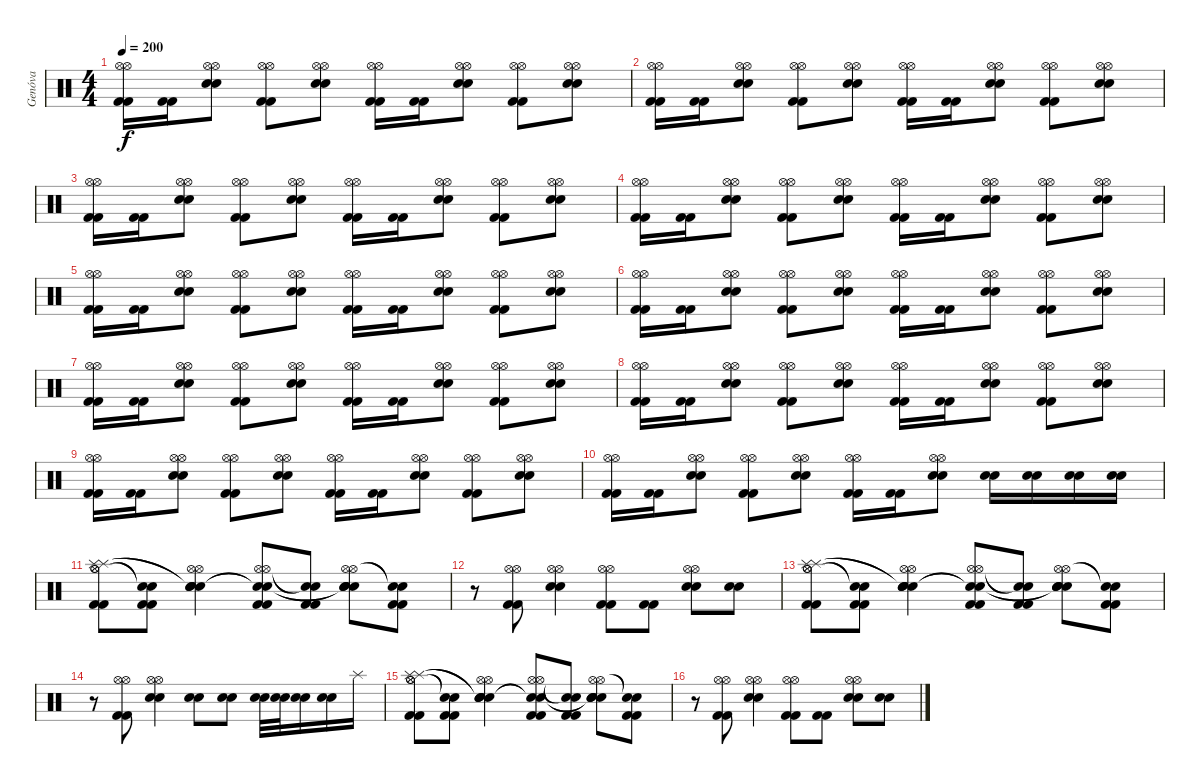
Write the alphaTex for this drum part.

\track ("Genóva" "Genóva") {instrument percussion}
\staff {score}
\articulation defaults
\ts (4 4)
\tempo 200
\clef neutral
\ks c
("Kick (hit) 2" "Kick (hit) 2" "Hi-Hat (open)" "Hi-Hat (open)").16{dy f} ("Kick (hit) 2" "Kick (hit) 2").16 ("Snare (hit) 2" "Snare (hit) 2" "Hi-Hat (open)" "Hi-Hat (open)").8 ("Kick (hit) 2" "Kick (hit) 2" "Hi-Hat (open)" "Hi-Hat (open)").8 ("Snare (hit) 2" "Snare (hit) 2" "Hi-Hat (open)" "Hi-Hat (open)").8 ("Kick (hit) 2" "Kick (hit) 2" "Hi-Hat (open)" "Hi-Hat (open)").16 ("Kick (hit) 2" "Kick (hit) 2").16 ("Snare (hit) 2" "Snare (hit) 2" "Hi-Hat (open)" "Hi-Hat (open)").8 ("Kick (hit) 2" "Kick (hit) 2" "Hi-Hat (open)" "Hi-Hat (open)").8 ("Snare (hit) 2" "Snare (hit) 2" "Hi-Hat (open)" "Hi-Hat (open)").8 |
("Kick (hit) 2" "Kick (hit) 2" "Hi-Hat (open)" "Hi-Hat (open)").16 ("Kick (hit) 2" "Kick (hit) 2").16 ("Snare (hit) 2" "Snare (hit) 2" "Hi-Hat (open)" "Hi-Hat (open)").8 ("Kick (hit) 2" "Kick (hit) 2" "Hi-Hat (open)" "Hi-Hat (open)").8 ("Snare (hit) 2" "Snare (hit) 2" "Hi-Hat (open)" "Hi-Hat (open)").8 ("Kick (hit) 2" "Kick (hit) 2" "Hi-Hat (open)" "Hi-Hat (open)").16 ("Kick (hit) 2" "Kick (hit) 2").16 ("Snare (hit) 2" "Snare (hit) 2" "Hi-Hat (open)" "Hi-Hat (open)").8 ("Kick (hit) 2" "Kick (hit) 2" "Hi-Hat (open)" "Hi-Hat (open)").8 ("Snare (hit) 2" "Snare (hit) 2" "Hi-Hat (open)" "Hi-Hat (open)").8 |
("Kick (hit) 2" "Kick (hit) 2" "Hi-Hat (open)" "Hi-Hat (open)").16 ("Kick (hit) 2" "Kick (hit) 2").16 ("Snare (hit) 2" "Snare (hit) 2" "Hi-Hat (open)" "Hi-Hat (open)").8 ("Kick (hit) 2" "Kick (hit) 2" "Hi-Hat (open)" "Hi-Hat (open)").8 ("Snare (hit) 2" "Snare (hit) 2" "Hi-Hat (open)" "Hi-Hat (open)").8 ("Kick (hit) 2" "Kick (hit) 2" "Hi-Hat (open)" "Hi-Hat (open)").16 ("Kick (hit) 2" "Kick (hit) 2").16 ("Snare (hit) 2" "Snare (hit) 2" "Hi-Hat (open)" "Hi-Hat (open)").8 ("Kick (hit) 2" "Kick (hit) 2" "Hi-Hat (open)" "Hi-Hat (open)").8 ("Snare (hit) 2" "Snare (hit) 2" "Hi-Hat (open)" "Hi-Hat (open)").8 |
("Kick (hit) 2" "Kick (hit) 2" "Hi-Hat (open)" "Hi-Hat (open)").16 ("Kick (hit) 2" "Kick (hit) 2").16 ("Snare (hit) 2" "Snare (hit) 2" "Hi-Hat (open)" "Hi-Hat (open)").8 ("Kick (hit) 2" "Kick (hit) 2" "Hi-Hat (open)" "Hi-Hat (open)").8 ("Snare (hit) 2" "Snare (hit) 2" "Hi-Hat (open)" "Hi-Hat (open)").8 ("Kick (hit) 2" "Kick (hit) 2" "Hi-Hat (open)" "Hi-Hat (open)").16 ("Kick (hit) 2" "Kick (hit) 2").16 ("Snare (hit) 2" "Snare (hit) 2" "Hi-Hat (open)" "Hi-Hat (open)").8 ("Kick (hit) 2" "Kick (hit) 2" "Hi-Hat (open)" "Hi-Hat (open)").8 ("Snare (hit) 2" "Snare (hit) 2" "Hi-Hat (open)" "Hi-Hat (open)").8 |
("Kick (hit) 2" "Kick (hit) 2" "Hi-Hat (open)" "Hi-Hat (open)").16 ("Kick (hit) 2" "Kick (hit) 2").16 ("Snare (hit) 2" "Snare (hit) 2" "Hi-Hat (open)" "Hi-Hat (open)").8 ("Kick (hit) 2" "Kick (hit) 2" "Hi-Hat (open)" "Hi-Hat (open)").8 ("Snare (hit) 2" "Snare (hit) 2" "Hi-Hat (open)" "Hi-Hat (open)").8 ("Kick (hit) 2" "Kick (hit) 2" "Hi-Hat (open)" "Hi-Hat (open)").16 ("Kick (hit) 2" "Kick (hit) 2").16 ("Snare (hit) 2" "Snare (hit) 2" "Hi-Hat (open)" "Hi-Hat (open)").8 ("Kick (hit) 2" "Kick (hit) 2" "Hi-Hat (open)" "Hi-Hat (open)").8 ("Snare (hit) 2" "Snare (hit) 2" "Hi-Hat (open)" "Hi-Hat (open)").8 |
("Kick (hit) 2" "Kick (hit) 2" "Hi-Hat (open)" "Hi-Hat (open)").16 ("Kick (hit) 2" "Kick (hit) 2").16 ("Snare (hit) 2" "Snare (hit) 2" "Hi-Hat (open)" "Hi-Hat (open)").8 ("Kick (hit) 2" "Kick (hit) 2" "Hi-Hat (open)" "Hi-Hat (open)").8 ("Snare (hit) 2" "Snare (hit) 2" "Hi-Hat (open)" "Hi-Hat (open)").8 ("Kick (hit) 2" "Kick (hit) 2" "Hi-Hat (open)" "Hi-Hat (open)").16 ("Kick (hit) 2" "Kick (hit) 2").16 ("Snare (hit) 2" "Snare (hit) 2" "Hi-Hat (open)" "Hi-Hat (open)").8 ("Kick (hit) 2" "Kick (hit) 2" "Hi-Hat (open)" "Hi-Hat (open)").8 ("Snare (hit) 2" "Snare (hit) 2" "Hi-Hat (open)" "Hi-Hat (open)").8 |
("Kick (hit) 2" "Kick (hit) 2" "Hi-Hat (open)" "Hi-Hat (open)").16 ("Kick (hit) 2" "Kick (hit) 2").16 ("Snare (hit) 2" "Snare (hit) 2" "Hi-Hat (open)" "Hi-Hat (open)").8 ("Kick (hit) 2" "Kick (hit) 2" "Hi-Hat (open)" "Hi-Hat (open)").8 ("Snare (hit) 2" "Snare (hit) 2" "Hi-Hat (open)" "Hi-Hat (open)").8 ("Kick (hit) 2" "Kick (hit) 2" "Hi-Hat (open)" "Hi-Hat (open)").16 ("Kick (hit) 2" "Kick (hit) 2").16 ("Snare (hit) 2" "Snare (hit) 2" "Hi-Hat (open)" "Hi-Hat (open)").8 ("Kick (hit) 2" "Kick (hit) 2" "Hi-Hat (open)" "Hi-Hat (open)").8 ("Snare (hit) 2" "Snare (hit) 2" "Hi-Hat (open)" "Hi-Hat (open)").8 |
("Kick (hit) 2" "Kick (hit) 2" "Hi-Hat (open)" "Hi-Hat (open)").16 ("Kick (hit) 2" "Kick (hit) 2").16 ("Snare (hit) 2" "Snare (hit) 2" "Hi-Hat (open)" "Hi-Hat (open)").8 ("Kick (hit) 2" "Kick (hit) 2" "Hi-Hat (open)" "Hi-Hat (open)").8 ("Snare (hit) 2" "Snare (hit) 2" "Hi-Hat (open)" "Hi-Hat (open)").8 ("Kick (hit) 2" "Kick (hit) 2" "Hi-Hat (open)" "Hi-Hat (open)").16 ("Kick (hit) 2" "Kick (hit) 2").16 ("Snare (hit) 2" "Snare (hit) 2" "Hi-Hat (open)" "Hi-Hat (open)").8 ("Kick (hit) 2" "Kick (hit) 2" "Hi-Hat (open)" "Hi-Hat (open)").8 ("Snare (hit) 2" "Snare (hit) 2" "Hi-Hat (open)" "Hi-Hat (open)").8 |
("Kick (hit) 2" "Kick (hit) 2" "Hi-Hat (open)" "Hi-Hat (open)").16 ("Kick (hit) 2" "Kick (hit) 2").16 ("Snare (hit) 2" "Snare (hit) 2" "Hi-Hat (open)" "Hi-Hat (open)").8 ("Kick (hit) 2" "Kick (hit) 2" "Hi-Hat (open)" "Hi-Hat (open)").8 ("Snare (hit) 2" "Snare (hit) 2" "Hi-Hat (open)" "Hi-Hat (open)").8 ("Kick (hit) 2" "Kick (hit) 2" "Hi-Hat (open)" "Hi-Hat (open)").16 ("Kick (hit) 2" "Kick (hit) 2").16 ("Snare (hit) 2" "Snare (hit) 2" "Hi-Hat (open)" "Hi-Hat (open)").8 ("Kick (hit) 2" "Kick (hit) 2" "Hi-Hat (open)" "Hi-Hat (open)").8 ("Snare (hit) 2" "Snare (hit) 2" "Hi-Hat (open)" "Hi-Hat (open)").8 |
("Kick (hit) 2" "Kick (hit) 2" "Hi-Hat (open)" "Hi-Hat (open)").16 ("Kick (hit) 2" "Kick (hit) 2").16 ("Snare (hit) 2" "Snare (hit) 2" "Hi-Hat (open)" "Hi-Hat (open)").8 ("Kick (hit) 2" "Kick (hit) 2" "Hi-Hat (open)" "Hi-Hat (open)").8 ("Snare (hit) 2" "Snare (hit) 2" "Hi-Hat (open)" "Hi-Hat (open)").8 ("Kick (hit) 2" "Kick (hit) 2" "Hi-Hat (open)" "Hi-Hat (open)").16 ("Kick (hit) 2" "Kick (hit) 2").16 ("Snare (hit) 2" "Snare (hit) 2" "Hi-Hat (open)" "Hi-Hat (open)").8 ("Snare (hit) 2" "Snare (hit) 2").16 ("Snare (hit) 2" "Snare (hit) 2").16 ("Snare (hit) 2" "Snare (hit) 2").16 ("Snare (hit) 2" "Snare (hit) 2").16 |
("Kick (hit) 2" "Kick (hit) 2" "Hi-Hat (open)" "Hi-Hat (open)" "Splash (hit)" "Splash (hit)").8 ("Kick (hit) 2" "Kick (hit) 2" "Snare (hit)"{t} "Snare (hit)"{t}).8 ("Snare (hit) 2" "Snare (hit) 2" "Hi-Hat (open)" "Hi-Hat (open)" "Snare (hit)"{t} "Snare (hit)"{t}).4 ("Kick (hit) 2" "Kick (hit) 2" "Hi-Hat (open)" "Hi-Hat (open)" "Snare (hit)"{t} "Snare (hit)"{t}).8 ("Kick (hit) 2" "Kick (hit) 2" "Snare (hit)"{t} "Snare (hit)"{t}).8 ("Snare (hit) 2" "Snare (hit) 2" "Hi-Hat (open)" "Hi-Hat (open)" "Snare (hit)"{t} "Snare (hit)"{t}).8 ("Kick (hit) 2" "Kick (hit) 2" "Snare (hit)"{t} "Snare (hit)"{t}).8 |
r.8 ("Kick (hit) 2" "Kick (hit) 2" "Hi-Hat (open)" "Hi-Hat (open)").8 ("Snare (hit) 2" "Snare (hit) 2" "Hi-Hat (open)" "Hi-Hat (open)").4 ("Kick (hit) 2" "Kick (hit) 2" "Hi-Hat (open)" "Hi-Hat (open)").8 ("Kick (hit) 2" "Kick (hit) 2").8 ("Snare (hit) 2" "Snare (hit) 2" "Hi-Hat (open)" "Hi-Hat (open)").8 ("Snare (hit) 2" "Snare (hit) 2").8 |
("Kick (hit) 2" "Kick (hit) 2" "Hi-Hat (open)" "Hi-Hat (open)" "Splash (hit)" "Splash (hit)").8 ("Kick (hit) 2" "Kick (hit) 2" "Snare (hit)"{t} "Snare (hit)"{t}).8 ("Snare (hit) 2" "Snare (hit) 2" "Hi-Hat (open)" "Hi-Hat (open)" "Snare (hit)"{t} "Snare (hit)"{t}).4 ("Kick (hit) 2" "Kick (hit) 2" "Hi-Hat (open)" "Hi-Hat (open)" "Snare (hit)"{t} "Snare (hit)"{t}).8 ("Kick (hit) 2" "Kick (hit) 2" "Snare (hit)"{t} "Snare (hit)"{t}).8 ("Snare (hit) 2" "Snare (hit) 2" "Hi-Hat (open)" "Hi-Hat (open)" "Snare (hit)"{t} "Snare (hit)"{t}).8 ("Kick (hit) 2" "Kick (hit) 2" "Snare (hit)"{t} "Snare (hit)"{t}).8 |
r.8 ("Kick (hit) 2" "Kick (hit) 2" "Hi-Hat (open)" "Hi-Hat (open)").8 ("Snare (hit) 2" "Snare (hit) 2" "Hi-Hat (open)" "Hi-Hat (open)").4 ("Snare (hit) 2" "Snare (hit) 2").8 ("Snare (hit) 2" "Snare (hit) 2").8 ("Snare (hit) 2" "Snare (hit) 2").32 ("Snare (hit) 2" "Snare (hit) 2").32 ("Snare (hit) 2" "Snare (hit) 2").16 ("Snare (hit) 2" "Snare (hit) 2").16 "Splash (hit)".16 |
("Kick (hit) 2" "Kick (hit) 2" "Hi-Hat (open)" "Hi-Hat (open)" "Splash (hit)" "Splash (hit)").8 ("Kick (hit) 2" "Kick (hit) 2" "Snare (hit)"{t} "Snare (hit)"{t}).8 ("Snare (hit) 2" "Snare (hit) 2" "Hi-Hat (open)" "Hi-Hat (open)" "Snare (hit)"{t} "Snare (hit)"{t}).4 ("Kick (hit) 2" "Kick (hit) 2" "Hi-Hat (open)" "Hi-Hat (open)" "Snare (hit)"{t} "Snare (hit)"{t}).8 ("Kick (hit) 2" "Kick (hit) 2" "Snare (hit)"{t} "Snare (hit)"{t}).8 ("Snare (hit) 2" "Snare (hit) 2" "Hi-Hat (open)" "Hi-Hat (open)" "Snare (hit)"{t} "Snare (hit)"{t}).8 ("Kick (hit) 2" "Kick (hit) 2" "Snare (hit)"{t} "Snare (hit)"{t}).8 |
r.8 ("Kick (hit) 2" "Kick (hit) 2" "Hi-Hat (open)" "Hi-Hat (open)").8 ("Snare (hit) 2" "Snare (hit) 2" "Hi-Hat (open)" "Hi-Hat (open)").4 ("Kick (hit) 2" "Kick (hit) 2" "Hi-Hat (open)" "Hi-Hat (open)").8 ("Kick (hit) 2" "Kick (hit) 2").8 ("Snare (hit) 2" "Snare (hit) 2" "Hi-Hat (open)" "Hi-Hat (open)").8 ("Snare (hit) 2" "Snare (hit) 2").8
